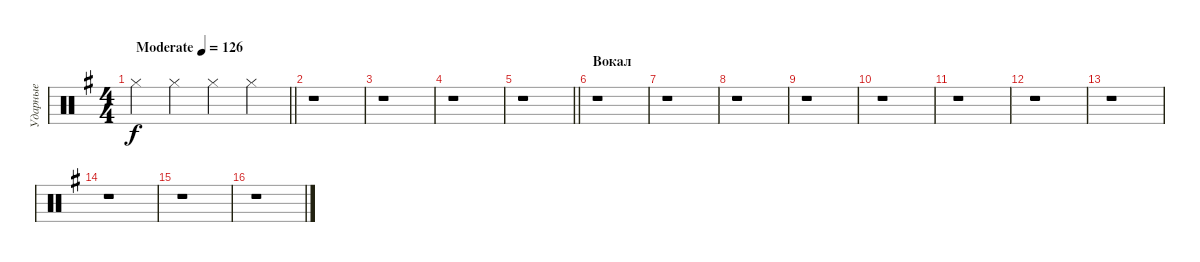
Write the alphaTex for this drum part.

\track ("Ударные" "Ударные") {instrument percussion}
\staff {score}
\articulation defaults
\ts (4 4)
\tempo (126 "Moderate")
\clef neutral
\barLineRight lightlight
\ks eminor "Hi-Hat (closed)".4{dy f} "Hi-Hat (closed)".4 "Hi-Hat (closed)".4 "Hi-Hat (closed)".4
|
r.1 |
r.1 |
r.1 |
\barLineRight lightlight
r.1 |
\section ("" "Вокал")
r.1 |
r.1 |
r.1 |
r.1 |
r.1 |
r.1 |
r.1 |
r.1 |
r.1 |
r.1 |
r.1
